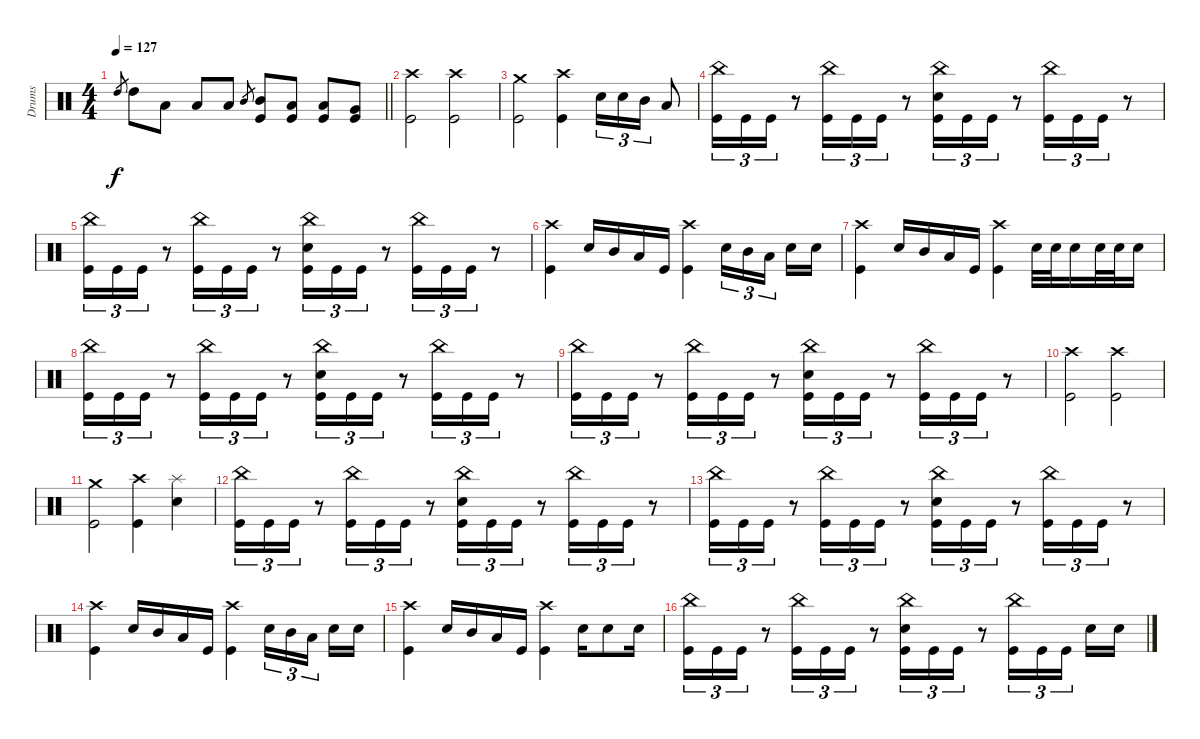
\track ("Drums" "Drums") {instrument percussion}
\staff
\articulation defaults
\ts (4 4)
\tempo 127
\clef neutral
\barLineRight lightlight
\ks c "High Tom (hit)".8{gr dy f} "High Tom (hit)".8 "Low Tom (hit)".8 "Low Tom (hit)".8 "Low Tom (hit)".8 "Mid Tom (hit)".8{gr}
("Mid Tom (hit)" "Kick (hit)").8 ("Low Tom (hit)" "Kick (hit)").8 ("Low Tom (hit)" "Kick (hit)").8 ("Very Low Tom (hit)" "Kick (hit)").8 |
\section ("" "")
("Crash high (hit)" "Kick (hit)").2 ("Crash high (hit)" "Kick (hit)").2 |
("Crash medium (hit)" "Kick (hit)").2 ("Crash high (hit)" "Kick (hit)").4 "Electric Snare (hit)".16{tu (3 2)} "Electric Snare (hit)".16{tu (3 2)} "Mid Tom (hit)".16{tu (3 2)} "Low Tom (hit)".8 |
("China (hit)" "Kick (hit)").16{tu (3 2)} "Kick (hit)".16{tu (3 2)} "Kick (hit)".16{tu (3 2)} r.8 ("China (hit)" "Kick (hit)").16{tu (3 2)} "Kick (hit)".16{tu (3 2)} "Kick (hit)".16{tu (3 2)} r.8 ("China (hit)" "Electric Snare (hit)" "Kick (hit)").16{tu (3 2)} "Kick (hit)".16{tu (3 2)} "Kick (hit)".16{tu (3 2)} r.8 ("China (hit)" "Kick (hit)").16{tu (3 2)} "Kick (hit)".16{tu (3 2)} "Kick (hit)".16{tu (3 2)} r.8 |
("China (hit)" "Kick (hit)").16{tu (3 2)} "Kick (hit)".16{tu (3 2)} "Kick (hit)".16{tu (3 2)} r.8 ("China (hit)" "Kick (hit)").16{tu (3 2)} "Kick (hit)".16{tu (3 2)} "Kick (hit)".16{tu (3 2)} r.8 ("China (hit)" "Electric Snare (hit)" "Kick (hit)").16{tu (3 2)} "Kick (hit)".16{tu (3 2)} "Kick (hit)".16{tu (3 2)} r.8 ("China (hit)" "Kick (hit)").16{tu (3 2)} "Kick (hit)".16{tu (3 2)} "Kick (hit)".16{tu (3 2)} r.8 |
("Crash high (hit)" "Kick (hit)").4 "Electric Snare (hit)".16 "Mid Tom (hit)".16 "Low Tom (hit)".16 "Kick (hit)".16 ("Crash high (hit)" "Kick (hit)").4 "Electric Snare (hit)".16{tu (3 2)} "Mid Tom (hit)".16{tu (3 2)} "Low Tom (hit)".16{tu (3 2) beam splitsecondary} "Electric Snare (hit)".16 "Electric Snare (hit)".16 |
("Crash high (hit)" "Kick (hit)").4 "Electric Snare (hit)".16 "Mid Tom (hit)".16 "Low Tom (hit)".16 "Kick (hit)".16 ("Crash high (hit)" "Kick (hit)").4 "Electric Snare (hit)".32 "Electric Snare (hit)".32 "Electric Snare (hit)".16 "Electric Snare (hit)".32 "Electric Snare (hit)".32 "Electric Snare (hit)".16 |
("China (hit)" "Kick (hit)").16{tu (3 2)} "Kick (hit)".16{tu (3 2)} "Kick (hit)".16{tu (3 2)} r.8 ("China (hit)" "Kick (hit)").16{tu (3 2)} "Kick (hit)".16{tu (3 2)} "Kick (hit)".16{tu (3 2)} r.8 ("China (hit)" "Electric Snare (hit)" "Kick (hit)").16{tu (3 2)} "Kick (hit)".16{tu (3 2)} "Kick (hit)".16{tu (3 2)} r.8 ("China (hit)" "Kick (hit)").16{tu (3 2)} "Kick (hit)".16{tu (3 2)} "Kick (hit)".16{tu (3 2)} r.8 |
("China (hit)" "Kick (hit)").16{tu (3 2)} "Kick (hit)".16{tu (3 2)} "Kick (hit)".16{tu (3 2)} r.8 ("China (hit)" "Kick (hit)").16{tu (3 2)} "Kick (hit)".16{tu (3 2)} "Kick (hit)".16{tu (3 2)} r.8 ("China (hit)" "Electric Snare (hit)" "Kick (hit)").16{tu (3 2)} "Kick (hit)".16{tu (3 2)} "Kick (hit)".16{tu (3 2)} r.8 ("China (hit)" "Kick (hit)").16{tu (3 2)} "Kick (hit)".16{tu (3 2)} "Kick (hit)".16{tu (3 2)} r.8 |
("Crash high (hit)" "Kick (hit)").2 ("Crash high (hit)" "Kick (hit)").2 |
("Crash medium (hit)" "Kick (hit)").2 ("Crash high (hit)" "Kick (hit)").4 ("Splash (hit)" "Electric Snare (hit)").4 |
("China (hit)" "Kick (hit)").16{tu (3 2)} "Kick (hit)".16{tu (3 2)} "Kick (hit)".16{tu (3 2)} r.8 ("China (hit)" "Kick (hit)").16{tu (3 2)} "Kick (hit)".16{tu (3 2)} "Kick (hit)".16{tu (3 2)} r.8 ("China (hit)" "Electric Snare (hit)" "Kick (hit)").16{tu (3 2)} "Kick (hit)".16{tu (3 2)} "Kick (hit)".16{tu (3 2)} r.8 ("China (hit)" "Kick (hit)").16{tu (3 2)} "Kick (hit)".16{tu (3 2)} "Kick (hit)".16{tu (3 2)} r.8 |
("China (hit)" "Kick (hit)").16{tu (3 2)} "Kick (hit)".16{tu (3 2)} "Kick (hit)".16{tu (3 2)} r.8 ("China (hit)" "Kick (hit)").16{tu (3 2)} "Kick (hit)".16{tu (3 2)} "Kick (hit)".16{tu (3 2)} r.8 ("China (hit)" "Electric Snare (hit)" "Kick (hit)").16{tu (3 2)} "Kick (hit)".16{tu (3 2)} "Kick (hit)".16{tu (3 2)} r.8 ("China (hit)" "Kick (hit)").16{tu (3 2)} "Kick (hit)".16{tu (3 2)} "Kick (hit)".16{tu (3 2)} r.8 |
("Crash high (hit)" "Kick (hit)").4 "Electric Snare (hit)".16 "Mid Tom (hit)".16 "Low Tom (hit)".16 "Kick (hit)".16 ("Crash high (hit)" "Kick (hit)").4 "Electric Snare (hit)".16{tu (3 2)} "Mid Tom (hit)".16{tu (3 2)} "Low Tom (hit)".16{tu (3 2) beam splitsecondary} "Electric Snare (hit)".16 "Electric Snare (hit)".16 |
("Crash high (hit)" "Kick (hit)").4 "Electric Snare (hit)".16 "Mid Tom (hit)".16 "Low Tom (hit)".16 "Kick (hit)".16 ("Crash high (hit)" "Kick (hit)").4 "Electric Snare (hit)".16 "Electric Snare (hit)".8 "Electric Snare (hit)".16 |
("China (hit)" "Kick (hit)").16{tu (3 2)} "Kick (hit)".16{tu (3 2)} "Kick (hit)".16{tu (3 2)} r.8 ("China (hit)" "Kick (hit)").16{tu (3 2)} "Kick (hit)".16{tu (3 2)} "Kick (hit)".16{tu (3 2)} r.8 ("China (hit)" "Electric Snare (hit)" "Kick (hit)").16{tu (3 2)} "Kick (hit)".16{tu (3 2)} "Kick (hit)".16{tu (3 2)} r.8 ("China (hit)" "Kick (hit)").16{tu (3 2)} "Kick (hit)".16{tu (3 2)} "Kick (hit)".16{tu (3 2) beam splitsecondary} "Electric Snare (hit)".16 "Electric Snare (hit)".16
